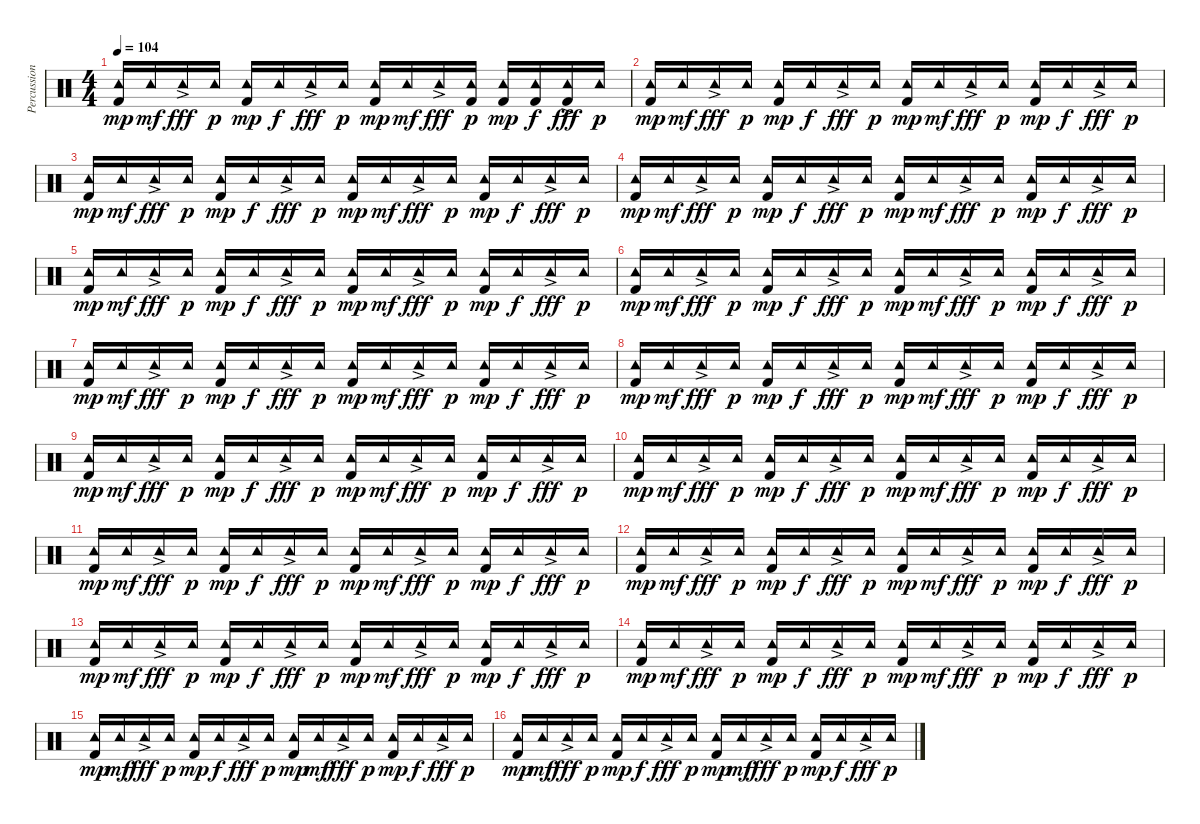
\track ("Percussion" "Percussion") {instrument percussion}
\staff {score}
\articulation defaults
\ts (4 4)
\tempo 104
\clef neutral
\ks c
("Kick (hit) 2" "Tambourine (hit)").16{dy mp} "Tambourine (hit)".16{dy mf} "Tambourine (hit)"{ac}.16{dy fff} "Tambourine (hit)".16{dy p} ("Kick (hit) 2" "Tambourine (hit)").16{dy mp} "Tambourine (hit)".16{dy f} "Tambourine (hit)"{ac}.16{dy fff} "Tambourine (hit)".16{dy p} ("Kick (hit) 2" "Tambourine (hit)").16{dy mp} "Tambourine (hit)".16{dy mf} "Tambourine (hit)"{ac}.16{dy fff} ("Kick (hit) 2" "Tambourine (hit)").16{dy p} ("Kick (hit) 2" "Tambourine (hit)").16{dy mp} ("Kick (hit) 2" "Tambourine (hit)").16{dy f} ("Kick (hit) 2" "Tambourine (hit)"{ac}).16{dy fff} "Tambourine (hit)".16{dy p} |
("Kick (hit) 2" "Tambourine (hit)").16{dy mp} "Tambourine (hit)".16{dy mf} "Tambourine (hit)"{ac}.16{dy fff} "Tambourine (hit)".16{dy p} ("Kick (hit) 2" "Tambourine (hit)").16{dy mp} "Tambourine (hit)".16{dy f} "Tambourine (hit)"{ac}.16{dy fff} "Tambourine (hit)".16{dy p} ("Kick (hit) 2" "Tambourine (hit)").16{dy mp} "Tambourine (hit)".16{dy mf} "Tambourine (hit)"{ac}.16{dy fff} "Tambourine (hit)".16{dy p} ("Kick (hit) 2" "Tambourine (hit)").16{dy mp} "Tambourine (hit)".16{dy f} "Tambourine (hit)"{ac}.16{dy fff} "Tambourine (hit)".16{dy p} |
("Kick (hit) 2" "Tambourine (hit)").16{dy mp} "Tambourine (hit)".16{dy mf} "Tambourine (hit)"{ac}.16{dy fff} "Tambourine (hit)".16{dy p} ("Kick (hit) 2" "Tambourine (hit)").16{dy mp} "Tambourine (hit)".16{dy f} "Tambourine (hit)"{ac}.16{dy fff} "Tambourine (hit)".16{dy p} ("Kick (hit) 2" "Tambourine (hit)").16{dy mp} "Tambourine (hit)".16{dy mf} "Tambourine (hit)"{ac}.16{dy fff} "Tambourine (hit)".16{dy p} ("Kick (hit) 2" "Tambourine (hit)").16{dy mp} "Tambourine (hit)".16{dy f} "Tambourine (hit)"{ac}.16{dy fff} "Tambourine (hit)".16{dy p} |
("Kick (hit) 2" "Tambourine (hit)").16{dy mp} "Tambourine (hit)".16{dy mf} "Tambourine (hit)"{ac}.16{dy fff} "Tambourine (hit)".16{dy p} ("Kick (hit) 2" "Tambourine (hit)").16{dy mp} "Tambourine (hit)".16{dy f} "Tambourine (hit)"{ac}.16{dy fff} "Tambourine (hit)".16{dy p} ("Kick (hit) 2" "Tambourine (hit)").16{dy mp} "Tambourine (hit)".16{dy mf} "Tambourine (hit)"{ac}.16{dy fff} "Tambourine (hit)".16{dy p} ("Kick (hit) 2" "Tambourine (hit)").16{dy mp} "Tambourine (hit)".16{dy f} "Tambourine (hit)"{ac}.16{dy fff} "Tambourine (hit)".16{dy p} |
("Kick (hit) 2" "Tambourine (hit)").16{dy mp} "Tambourine (hit)".16{dy mf} "Tambourine (hit)"{ac}.16{dy fff} "Tambourine (hit)".16{dy p} ("Kick (hit) 2" "Tambourine (hit)").16{dy mp} "Tambourine (hit)".16{dy f} "Tambourine (hit)"{ac}.16{dy fff} "Tambourine (hit)".16{dy p} ("Kick (hit) 2" "Tambourine (hit)").16{dy mp} "Tambourine (hit)".16{dy mf} "Tambourine (hit)"{ac}.16{dy fff} "Tambourine (hit)".16{dy p} ("Kick (hit) 2" "Tambourine (hit)").16{dy mp} "Tambourine (hit)".16{dy f} "Tambourine (hit)"{ac}.16{dy fff} "Tambourine (hit)".16{dy p} |
("Kick (hit) 2" "Tambourine (hit)").16{dy mp} "Tambourine (hit)".16{dy mf} "Tambourine (hit)"{ac}.16{dy fff} "Tambourine (hit)".16{dy p} ("Kick (hit) 2" "Tambourine (hit)").16{dy mp} "Tambourine (hit)".16{dy f} "Tambourine (hit)"{ac}.16{dy fff} "Tambourine (hit)".16{dy p} ("Kick (hit) 2" "Tambourine (hit)").16{dy mp} "Tambourine (hit)".16{dy mf} "Tambourine (hit)"{ac}.16{dy fff} "Tambourine (hit)".16{dy p} ("Kick (hit) 2" "Tambourine (hit)").16{dy mp} "Tambourine (hit)".16{dy f} "Tambourine (hit)"{ac}.16{dy fff} "Tambourine (hit)".16{dy p} |
("Kick (hit) 2" "Tambourine (hit)").16{dy mp} "Tambourine (hit)".16{dy mf} "Tambourine (hit)"{ac}.16{dy fff} "Tambourine (hit)".16{dy p} ("Kick (hit) 2" "Tambourine (hit)").16{dy mp} "Tambourine (hit)".16{dy f} "Tambourine (hit)"{ac}.16{dy fff} "Tambourine (hit)".16{dy p} ("Kick (hit) 2" "Tambourine (hit)").16{dy mp} "Tambourine (hit)".16{dy mf} "Tambourine (hit)"{ac}.16{dy fff} "Tambourine (hit)".16{dy p} ("Kick (hit) 2" "Tambourine (hit)").16{dy mp} "Tambourine (hit)".16{dy f} "Tambourine (hit)"{ac}.16{dy fff} "Tambourine (hit)".16{dy p} |
("Kick (hit) 2" "Tambourine (hit)").16{dy mp} "Tambourine (hit)".16{dy mf} "Tambourine (hit)"{ac}.16{dy fff} "Tambourine (hit)".16{dy p} ("Kick (hit) 2" "Tambourine (hit)").16{dy mp} "Tambourine (hit)".16{dy f} "Tambourine (hit)"{ac}.16{dy fff} "Tambourine (hit)".16{dy p} ("Kick (hit) 2" "Tambourine (hit)").16{dy mp} "Tambourine (hit)".16{dy mf} "Tambourine (hit)"{ac}.16{dy fff} "Tambourine (hit)".16{dy p} ("Kick (hit) 2" "Tambourine (hit)").16{dy mp} "Tambourine (hit)".16{dy f} "Tambourine (hit)"{ac}.16{dy fff} "Tambourine (hit)".16{dy p} |
("Kick (hit) 2" "Tambourine (hit)").16{dy mp} "Tambourine (hit)".16{dy mf} "Tambourine (hit)"{ac}.16{dy fff} "Tambourine (hit)".16{dy p} ("Kick (hit) 2" "Tambourine (hit)").16{dy mp} "Tambourine (hit)".16{dy f} "Tambourine (hit)"{ac}.16{dy fff} "Tambourine (hit)".16{dy p} ("Kick (hit) 2" "Tambourine (hit)").16{dy mp} "Tambourine (hit)".16{dy mf} "Tambourine (hit)"{ac}.16{dy fff} "Tambourine (hit)".16{dy p} ("Kick (hit) 2" "Tambourine (hit)").16{dy mp} "Tambourine (hit)".16{dy f} "Tambourine (hit)"{ac}.16{dy fff} "Tambourine (hit)".16{dy p} |
("Kick (hit) 2" "Tambourine (hit)").16{dy mp} "Tambourine (hit)".16{dy mf} "Tambourine (hit)"{ac}.16{dy fff} "Tambourine (hit)".16{dy p} ("Kick (hit) 2" "Tambourine (hit)").16{dy mp} "Tambourine (hit)".16{dy f} "Tambourine (hit)"{ac}.16{dy fff} "Tambourine (hit)".16{dy p} ("Kick (hit) 2" "Tambourine (hit)").16{dy mp} "Tambourine (hit)".16{dy mf} "Tambourine (hit)"{ac}.16{dy fff} "Tambourine (hit)".16{dy p} ("Kick (hit) 2" "Tambourine (hit)").16{dy mp} "Tambourine (hit)".16{dy f} "Tambourine (hit)"{ac}.16{dy fff} "Tambourine (hit)".16{dy p} |
("Kick (hit) 2" "Tambourine (hit)").16{dy mp} "Tambourine (hit)".16{dy mf} "Tambourine (hit)"{ac}.16{dy fff} "Tambourine (hit)".16{dy p} ("Kick (hit) 2" "Tambourine (hit)").16{dy mp} "Tambourine (hit)".16{dy f} "Tambourine (hit)"{ac}.16{dy fff} "Tambourine (hit)".16{dy p} ("Kick (hit) 2" "Tambourine (hit)").16{dy mp} "Tambourine (hit)".16{dy mf} "Tambourine (hit)"{ac}.16{dy fff} "Tambourine (hit)".16{dy p} ("Kick (hit) 2" "Tambourine (hit)").16{dy mp} "Tambourine (hit)".16{dy f} "Tambourine (hit)"{ac}.16{dy fff} "Tambourine (hit)".16{dy p} |
("Kick (hit) 2" "Tambourine (hit)").16{dy mp} "Tambourine (hit)".16{dy mf} "Tambourine (hit)"{ac}.16{dy fff} "Tambourine (hit)".16{dy p} ("Kick (hit) 2" "Tambourine (hit)").16{dy mp} "Tambourine (hit)".16{dy f} "Tambourine (hit)"{ac}.16{dy fff} "Tambourine (hit)".16{dy p} ("Kick (hit) 2" "Tambourine (hit)").16{dy mp} "Tambourine (hit)".16{dy mf} "Tambourine (hit)"{ac}.16{dy fff} "Tambourine (hit)".16{dy p} ("Kick (hit) 2" "Tambourine (hit)").16{dy mp} "Tambourine (hit)".16{dy f} "Tambourine (hit)"{ac}.16{dy fff} "Tambourine (hit)".16{dy p} |
("Kick (hit) 2" "Tambourine (hit)").16{dy mp} "Tambourine (hit)".16{dy mf} "Tambourine (hit)"{ac}.16{dy fff} "Tambourine (hit)".16{dy p} ("Kick (hit) 2" "Tambourine (hit)").16{dy mp} "Tambourine (hit)".16{dy f} "Tambourine (hit)"{ac}.16{dy fff} "Tambourine (hit)".16{dy p} ("Kick (hit) 2" "Tambourine (hit)").16{dy mp} "Tambourine (hit)".16{dy mf} "Tambourine (hit)"{ac}.16{dy fff} "Tambourine (hit)".16{dy p} ("Kick (hit) 2" "Tambourine (hit)").16{dy mp} "Tambourine (hit)".16{dy f} "Tambourine (hit)"{ac}.16{dy fff} "Tambourine (hit)".16{dy p} |
("Kick (hit) 2" "Tambourine (hit)").16{dy mp} "Tambourine (hit)".16{dy mf} "Tambourine (hit)"{ac}.16{dy fff} "Tambourine (hit)".16{dy p} ("Kick (hit) 2" "Tambourine (hit)").16{dy mp} "Tambourine (hit)".16{dy f} "Tambourine (hit)"{ac}.16{dy fff} "Tambourine (hit)".16{dy p} ("Kick (hit) 2" "Tambourine (hit)").16{dy mp} "Tambourine (hit)".16{dy mf} "Tambourine (hit)"{ac}.16{dy fff} "Tambourine (hit)".16{dy p} ("Kick (hit) 2" "Tambourine (hit)").16{dy mp} "Tambourine (hit)".16{dy f} "Tambourine (hit)"{ac}.16{dy fff} "Tambourine (hit)".16{dy p} |
("Kick (hit) 2" "Tambourine (hit)").16{dy mp} "Tambourine (hit)".16{dy mf} "Tambourine (hit)"{ac}.16{dy fff} "Tambourine (hit)".16{dy p} ("Kick (hit) 2" "Tambourine (hit)").16{dy mp} "Tambourine (hit)".16{dy f} "Tambourine (hit)"{ac}.16{dy fff} "Tambourine (hit)".16{dy p} ("Kick (hit) 2" "Tambourine (hit)").16{dy mp} "Tambourine (hit)".16{dy mf} "Tambourine (hit)"{ac}.16{dy fff} "Tambourine (hit)".16{dy p} ("Kick (hit) 2" "Tambourine (hit)").16{dy mp} "Tambourine (hit)".16{dy f} "Tambourine (hit)"{ac}.16{dy fff} "Tambourine (hit)".16{dy p} |
("Kick (hit) 2" "Tambourine (hit)").16{dy mp} "Tambourine (hit)".16{dy mf} "Tambourine (hit)"{ac}.16{dy fff} "Tambourine (hit)".16{dy p} ("Kick (hit) 2" "Tambourine (hit)").16{dy mp} "Tambourine (hit)".16{dy f} "Tambourine (hit)"{ac}.16{dy fff} "Tambourine (hit)".16{dy p} ("Kick (hit) 2" "Tambourine (hit)").16{dy mp} "Tambourine (hit)".16{dy mf} "Tambourine (hit)"{ac}.16{dy fff} "Tambourine (hit)".16{dy p} ("Kick (hit) 2" "Tambourine (hit)").16{dy mp} "Tambourine (hit)".16{dy f} "Tambourine (hit)"{ac}.16{dy fff} "Tambourine (hit)".16{dy p}
